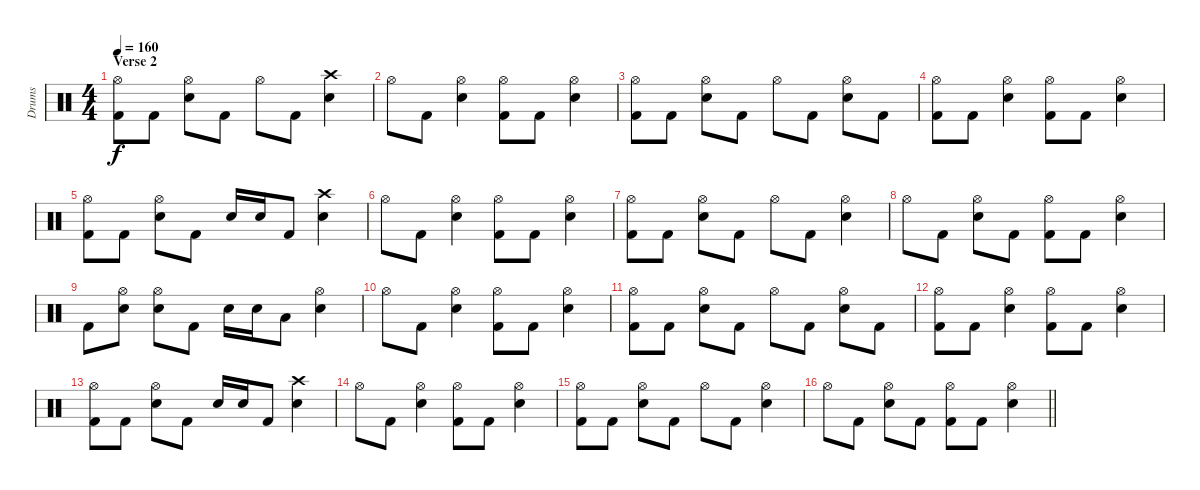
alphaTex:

\track ("Drums" "Drums") {instrument percussion}
\staff {score}
\articulation defaults
\ts (4 4)
\section ("" "Verse 2")
\tempo 160
\clef neutral
\ks c
("Kick (hit) 2" "Hi-Hat (open)").8{dy f} "Kick (hit) 2".8 ("Electric Snare (hit)" "Hi-Hat (open)").8 "Kick (hit) 2".8 "Hi-Hat (open)".8 "Kick (hit) 2".8 ("Electric Snare (hit)" "Crash high (hit)").4 |
"Hi-Hat (open)".8 "Kick (hit) 2".8 ("Electric Snare (hit)" "Hi-Hat (open)").4 ("Kick (hit) 2" "Hi-Hat (open)").8 "Kick (hit) 2".8 ("Electric Snare (hit)" "Hi-Hat (open)").4 |
("Kick (hit) 2" "Hi-Hat (open)").8 "Kick (hit) 2".8 ("Electric Snare (hit)" "Hi-Hat (open)").8 "Kick (hit) 2".8 "Hi-Hat (open)".8 "Kick (hit) 2".8 ("Electric Snare (hit)" "Hi-Hat (open)").8 "Kick (hit) 2".8 |
("Kick (hit) 2" "Hi-Hat (open)").8 "Kick (hit) 2".8 ("Electric Snare (hit)" "Hi-Hat (open)").4 ("Kick (hit) 2" "Hi-Hat (open)").8 "Kick (hit) 2".8 ("Electric Snare (hit)" "Hi-Hat (open)").4 |
("Kick (hit) 2" "Hi-Hat (open)").8 "Kick (hit) 2".8 ("Electric Snare (hit)" "Hi-Hat (open)").8 "Kick (hit) 2".8 "Electric Snare (hit)".16 "Electric Snare (hit)".16 "Kick (hit) 2".8 ("Electric Snare (hit)" "Crash high (hit)").4 |
"Hi-Hat (open)".8 "Kick (hit) 2".8 ("Electric Snare (hit)" "Hi-Hat (open)").4 ("Kick (hit) 2" "Hi-Hat (open)").8 "Kick (hit) 2".8 ("Electric Snare (hit)" "Hi-Hat (open)").4 |
("Kick (hit) 2" "Hi-Hat (open)").8 "Kick (hit) 2".8 ("Electric Snare (hit)" "Hi-Hat (open)").8 "Kick (hit) 2".8 "Hi-Hat (open)".8 "Kick (hit) 2".8 ("Electric Snare (hit)" "Hi-Hat (open)").4 |
"Hi-Hat (open)".8 "Kick (hit) 2".8 ("Electric Snare (hit)" "Hi-Hat (open)").8 "Kick (hit) 2".8 ("Kick (hit) 2" "Hi-Hat (open)").8 "Kick (hit) 2".8 ("Electric Snare (hit)" "Hi-Hat (open)").4 |
"Kick (hit) 2".8 ("Electric Snare (hit)" "Hi-Hat (open)").8 ("Electric Snare (hit)" "Hi-Hat (open)").8 "Kick (hit) 2".8 "Electric Snare (hit)".16 "Electric Snare (hit)".16 "Low Tom (hit)".8 ("Electric Snare (hit)" "Hi-Hat (open)").4 |
"Hi-Hat (open)".8 "Kick (hit) 2".8 ("Electric Snare (hit)" "Hi-Hat (open)").4 ("Kick (hit) 2" "Hi-Hat (open)").8 "Kick (hit) 2".8 ("Electric Snare (hit)" "Hi-Hat (open)").4 |
("Kick (hit) 2" "Hi-Hat (open)").8 "Kick (hit) 2".8 ("Electric Snare (hit)" "Hi-Hat (open)").8 "Kick (hit) 2".8 "Hi-Hat (open)".8 "Kick (hit) 2".8 ("Electric Snare (hit)" "Hi-Hat (open)").8 "Kick (hit) 2".8 |
("Kick (hit) 2" "Hi-Hat (open)").8 "Kick (hit) 2".8 ("Electric Snare (hit)" "Hi-Hat (open)").4 ("Kick (hit) 2" "Hi-Hat (open)").8 "Kick (hit) 2".8 ("Electric Snare (hit)" "Hi-Hat (open)").4 |
("Kick (hit) 2" "Hi-Hat (open)").8 "Kick (hit) 2".8 ("Electric Snare (hit)" "Hi-Hat (open)").8 "Kick (hit) 2".8 "Electric Snare (hit)".16 "Electric Snare (hit)".16 "Kick (hit) 2".8 ("Electric Snare (hit)" "Crash high (hit)").4 |
"Hi-Hat (open)".8 "Kick (hit) 2".8 ("Electric Snare (hit)" "Hi-Hat (open)").4 ("Kick (hit) 2" "Hi-Hat (open)").8 "Kick (hit) 2".8 ("Electric Snare (hit)" "Hi-Hat (open)").4 |
("Kick (hit) 2" "Hi-Hat (open)").8 "Kick (hit) 2".8 ("Electric Snare (hit)" "Hi-Hat (open)").8 "Kick (hit) 2".8 "Hi-Hat (open)".8 "Kick (hit) 2".8 ("Electric Snare (hit)" "Hi-Hat (open)").4 |
\barLineRight lightlight "Hi-Hat (open)".8 "Kick (hit) 2".8
("Electric Snare (hit)" "Hi-Hat (open)").8 "Kick (hit) 2".8 ("Kick (hit) 2" "Hi-Hat (open)").8 "Kick (hit) 2".8 ("Electric Snare (hit)" "Hi-Hat (open)").4
